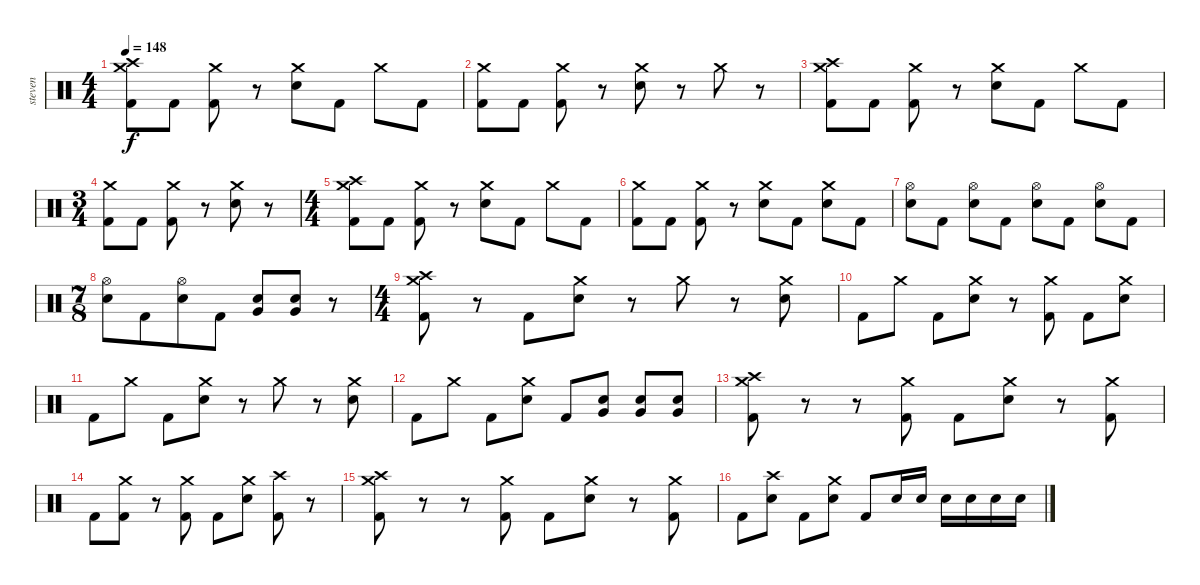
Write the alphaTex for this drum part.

\track ("steven" "steven") {instrument percussion}
\staff {score}
\articulation defaults
\ts (4 4)
\tempo 148
\clef neutral
\ks c
("Crash medium (hit)" "Crash high (hit)" "Kick (hit) 2").8{dy f} "Kick (hit) 2".8 ("Crash medium (hit)" "Kick (hit) 2").8 r.8 ("Crash medium (hit)" "Electric Snare (hit)").8 "Kick (hit) 2".8 "Crash medium (hit)".8 "Kick (hit) 2".8 |
("Crash medium (hit)" "Kick (hit) 2").8 "Kick (hit) 2".8 ("Crash medium (hit)" "Kick (hit) 2").8 r.8 ("Crash medium (hit)" "Electric Snare (hit)").8 r.8 "Crash medium (hit)".8 r.8 |
("Crash medium (hit)" "Crash high (hit)" "Kick (hit) 2").8 "Kick (hit) 2".8 ("Crash medium (hit)" "Kick (hit) 2").8 r.8 ("Crash medium (hit)" "Electric Snare (hit)").8 "Kick (hit) 2".8 "Crash medium (hit)".8 "Kick (hit) 2".8 |
\ts (3 4)
("Crash medium (hit)" "Kick (hit) 2").8 "Kick (hit) 2".8 ("Crash medium (hit)" "Kick (hit) 2").8 r.8 ("Crash medium (hit)" "Electric Snare (hit)").8 r.8 |
\ts (4 4)
("Crash medium (hit)" "Crash high (hit)" "Kick (hit) 2").8 "Kick (hit) 2".8 ("Crash medium (hit)" "Kick (hit) 2").8 r.8 ("Crash medium (hit)" "Electric Snare (hit)").8 "Kick (hit) 2".8 "Crash medium (hit)".8 "Kick (hit) 2".8 |
("Crash medium (hit)" "Kick (hit) 2").8 "Kick (hit) 2".8 ("Crash medium (hit)" "Kick (hit) 2").8 r.8 ("Crash medium (hit)" "Electric Snare (hit)").8 "Kick (hit) 2".8 ("Crash medium (hit)" "Electric Snare (hit)").8 "Kick (hit) 2".8 |
("Hi-Hat (open)" "Electric Snare (hit)").8 "Kick (hit) 2".8 ("Hi-Hat (open)" "Electric Snare (hit)").8 "Kick (hit) 2".8 ("Hi-Hat (open)" "Electric Snare (hit)").8 "Kick (hit) 2".8 ("Hi-Hat (open)" "Electric Snare (hit)").8 "Kick (hit) 2".8 |
\ts (7 8)
("Hi-Hat (open)" "Electric Snare (hit)").8 "Kick (hit) 2".8 ("Hi-Hat (open)" "Electric Snare (hit)").8 "Kick (hit) 2".8 ("Electric Snare (hit)" "Very Low Tom (hit)").8 ("Electric Snare (hit)" "Very Low Tom (hit)").8 r.8 |
\ts (4 4)
("Crash medium (hit)" "Crash high (hit)" "Kick (hit) 2").8 r.8 "Kick (hit) 2".8 ("Crash medium (hit)" "Electric Snare (hit)").8 r.8 "Crash medium (hit)".8 r.8 ("Crash medium (hit)" "Electric Snare (hit)").8 |
"Kick (hit) 2".8 "Crash medium (hit)".8 "Kick (hit) 2".8 ("Crash medium (hit)" "Electric Snare (hit)").8 r.8 ("Crash medium (hit)" "Kick (hit) 2").8 "Kick (hit) 2".8 ("Crash medium (hit)" "Electric Snare (hit)").8 |
"Kick (hit) 2".8 "Crash medium (hit)".8 "Kick (hit) 2".8 ("Crash medium (hit)" "Electric Snare (hit)").8 r.8 "Crash medium (hit)".8 r.8 ("Crash medium (hit)" "Electric Snare (hit)").8 |
"Kick (hit) 2".8 "Crash medium (hit)".8 "Kick (hit) 2".8 ("Crash medium (hit)" "Electric Snare (hit)").8 "Kick (hit) 2".8 ("Very Low Tom (hit)" "Electric Snare (hit)").8 ("Very Low Tom (hit)" "Electric Snare (hit)").8 ("Very Low Tom (hit)" "Electric Snare (hit)").8 |
("Crash medium (hit)" "Crash high (hit)" "Kick (hit) 2").8 r.8 r.8 ("Crash medium (hit)" "Kick (hit) 2").8 "Kick (hit) 2".8 ("Crash medium (hit)" "Electric Snare (hit)").8 r.8 ("Crash medium (hit)" "Kick (hit) 2").8 |
"Kick (hit) 2".8 ("Crash medium (hit)" "Kick (hit) 2").8 r.8 ("Crash medium (hit)" "Kick (hit) 2").8 "Kick (hit) 2".8 ("Crash medium (hit)" "Electric Snare (hit)").8 ("Crash high (hit)" "Kick (hit) 2").8 r.8 |
("Crash medium (hit)" "Crash high (hit)" "Kick (hit) 2").8 r.8 r.8 ("Crash medium (hit)" "Kick (hit) 2").8 "Kick (hit) 2".8 ("Crash medium (hit)" "Electric Snare (hit)").8 r.8 ("Crash medium (hit)" "Kick (hit) 2").8 |
"Kick (hit) 2".8 ("Crash high (hit)" "Electric Snare (hit)").8 "Kick (hit) 2".8 ("Crash medium (hit)" "Electric Snare (hit)").8 "Kick (hit) 2".8 "Electric Snare (hit)".16 "Electric Snare (hit)".16 "Electric Snare (hit)".16 "Electric Snare (hit)".16 "Electric Snare (hit)".16 "Electric Snare (hit)".16
